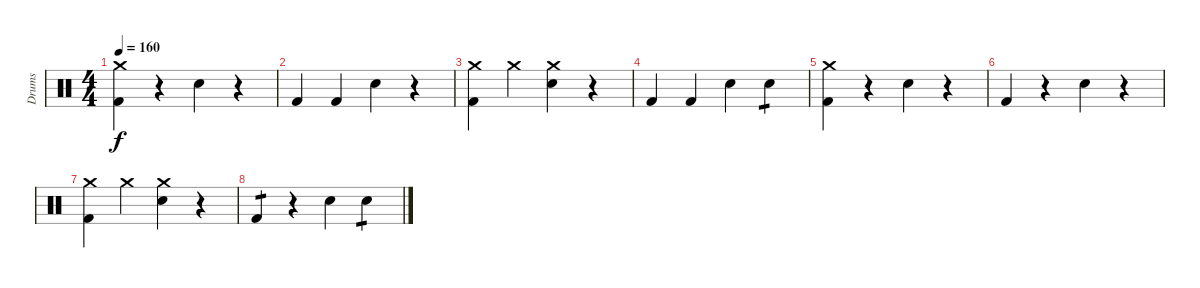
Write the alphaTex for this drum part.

\track ("Drums" "Drums") {instrument percussion}
\staff {score}
\articulation defaults
\ts (4 4)
\tempo 160
\clef neutral
\ks c
("Kick (hit) 2" "Crash medium (hit)").4{dy f} r.4 "Snare (hit) 2".4 r.4 |
"Kick (hit) 2".4 "Kick (hit) 2".4 "Snare (hit) 2".4 r.4 |
("Kick (hit) 2" "Crash medium (hit)").4 "Crash medium (hit)".4 ("Snare (hit) 2" "Crash medium (hit)").4 r.4 |
"Kick (hit) 2".4 "Kick (hit) 2".4 "Snare (hit) 2".4 "Snare (hit) 2".4{tp 1} |
("Kick (hit) 2" "Crash medium (hit)").4 r.4 "Snare (hit) 2".4 r.4 |
"Kick (hit) 2".4 r.4 "Snare (hit) 2".4 r.4 |
("Kick (hit) 2" "Crash medium (hit)").4 "Crash medium (hit)".4 ("Snare (hit) 2" "Crash medium (hit)").4 r.4 |
"Kick (hit) 2".4{tp 1} r.4 "Snare (hit) 2".4 "Snare (hit) 2".4{tp 1}
